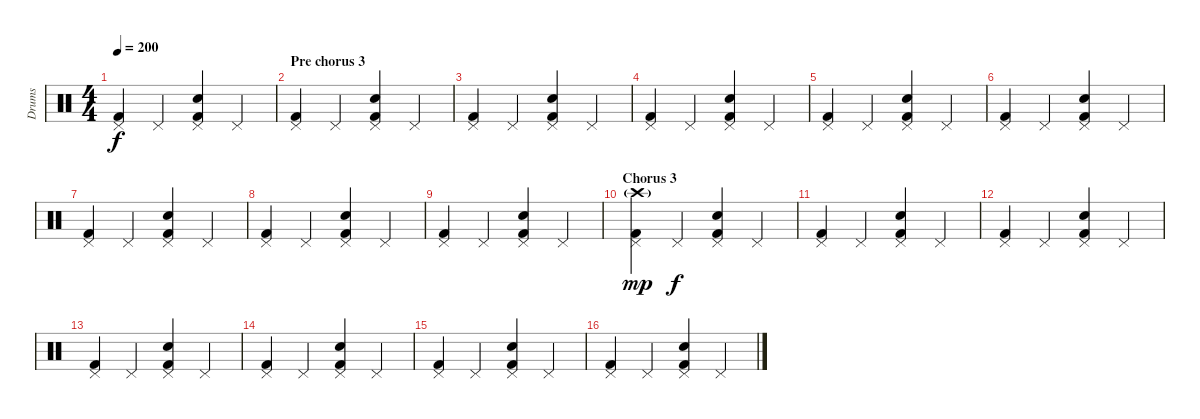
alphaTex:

\track ("Drums" "Drums") {instrument percussion}
\staff {score}
\articulation defaults
\ts (4 4)
\tempo 200
\clef neutral
\ks c
("Pedal Hi-Hat (hit)" "Kick (hit) 2").4{dy f} "Pedal Hi-Hat (hit)".4 ("Pedal Hi-Hat (hit)" "Kick (hit) 2" "Snare (hit) 2").4 "Pedal Hi-Hat (hit)".4 |
\section ("" "Pre chorus 3")
("Pedal Hi-Hat (hit)" "Kick (hit) 2").4 "Pedal Hi-Hat (hit)".4 ("Pedal Hi-Hat (hit)" "Kick (hit) 2" "Snare (hit) 2").4 "Pedal Hi-Hat (hit)".4 |
("Pedal Hi-Hat (hit)" "Kick (hit) 2").4 "Pedal Hi-Hat (hit)".4 ("Pedal Hi-Hat (hit)" "Kick (hit) 2" "Snare (hit) 2").4 "Pedal Hi-Hat (hit)".4 |
("Pedal Hi-Hat (hit)" "Kick (hit) 2").4 "Pedal Hi-Hat (hit)".4 ("Pedal Hi-Hat (hit)" "Kick (hit) 2" "Snare (hit) 2").4 "Pedal Hi-Hat (hit)".4 |
("Pedal Hi-Hat (hit)" "Kick (hit) 2").4 "Pedal Hi-Hat (hit)".4 ("Pedal Hi-Hat (hit)" "Kick (hit) 2" "Snare (hit) 2").4 "Pedal Hi-Hat (hit)".4 |
("Pedal Hi-Hat (hit)" "Kick (hit) 2").4 "Pedal Hi-Hat (hit)".4 ("Pedal Hi-Hat (hit)" "Kick (hit) 2" "Snare (hit) 2").4 "Pedal Hi-Hat (hit)".4 |
("Pedal Hi-Hat (hit)" "Kick (hit) 2").4 "Pedal Hi-Hat (hit)".4 ("Pedal Hi-Hat (hit)" "Kick (hit) 2" "Snare (hit) 2").4 "Pedal Hi-Hat (hit)".4 |
("Pedal Hi-Hat (hit)" "Kick (hit) 2").4 "Pedal Hi-Hat (hit)".4 ("Pedal Hi-Hat (hit)" "Kick (hit) 2" "Snare (hit) 2").4 "Pedal Hi-Hat (hit)".4 |
("Pedal Hi-Hat (hit)" "Kick (hit) 2").4 "Pedal Hi-Hat (hit)".4 ("Pedal Hi-Hat (hit)" "Kick (hit) 2" "Snare (hit) 2").4 "Pedal Hi-Hat (hit)".4 |
\section ("" "Chorus 3")
("Pedal Hi-Hat (hit)" "Crash high (hit)"{g} "Kick (hit) 2").4{dy mp} "Pedal Hi-Hat (hit)".4{dy f} ("Pedal Hi-Hat (hit)" "Kick (hit) 2" "Snare (hit) 2").4 "Pedal Hi-Hat (hit)".4 |
("Pedal Hi-Hat (hit)" "Kick (hit) 2").4 "Pedal Hi-Hat (hit)".4 ("Pedal Hi-Hat (hit)" "Kick (hit) 2" "Snare (hit) 2").4 "Pedal Hi-Hat (hit)".4 |
("Pedal Hi-Hat (hit)" "Kick (hit) 2").4 "Pedal Hi-Hat (hit)".4 ("Pedal Hi-Hat (hit)" "Kick (hit) 2" "Snare (hit) 2").4 "Pedal Hi-Hat (hit)".4 |
("Pedal Hi-Hat (hit)" "Kick (hit) 2").4 "Pedal Hi-Hat (hit)".4 ("Pedal Hi-Hat (hit)" "Kick (hit) 2" "Snare (hit) 2").4 "Pedal Hi-Hat (hit)".4 |
("Pedal Hi-Hat (hit)" "Kick (hit) 2").4 "Pedal Hi-Hat (hit)".4 ("Pedal Hi-Hat (hit)" "Kick (hit) 2" "Snare (hit) 2").4 "Pedal Hi-Hat (hit)".4 |
("Pedal Hi-Hat (hit)" "Kick (hit) 2").4 "Pedal Hi-Hat (hit)".4 ("Pedal Hi-Hat (hit)" "Kick (hit) 2" "Snare (hit) 2").4 "Pedal Hi-Hat (hit)".4 |
("Pedal Hi-Hat (hit)" "Kick (hit) 2").4 "Pedal Hi-Hat (hit)".4 ("Pedal Hi-Hat (hit)" "Kick (hit) 2" "Snare (hit) 2").4 "Pedal Hi-Hat (hit)".4
